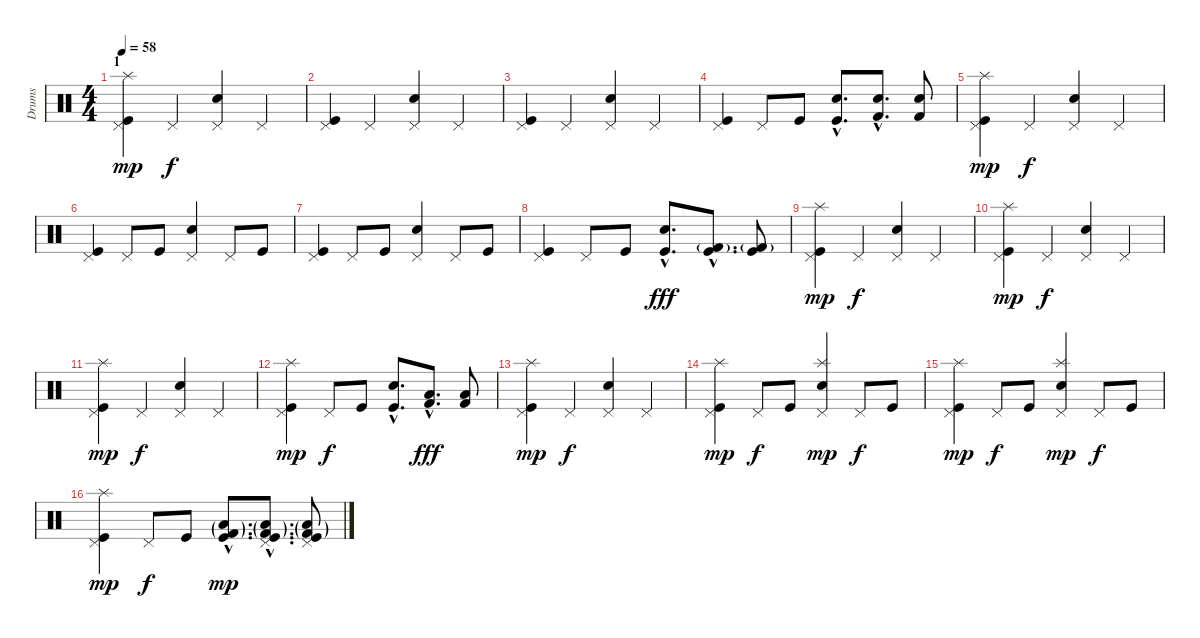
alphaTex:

\track ("Drums" "Drums") {instrument percussion}
\staff {score}
\articulation defaults
\ts (4 4)
\section ("" "1")
\tempo 58
\clef neutral
\ks c
("Kick (hit)" "Pedal Hi-Hat (hit)" "Splash (hit)").4{dy mp} "Pedal Hi-Hat (hit)".4{dy f} ("Electric Snare (hit)" "Pedal Hi-Hat (hit)").4 "Pedal Hi-Hat (hit)".4 |
("Kick (hit)" "Pedal Hi-Hat (hit)").4 "Pedal Hi-Hat (hit)".4 ("Electric Snare (hit)" "Pedal Hi-Hat (hit)").4 "Pedal Hi-Hat (hit)".4 |
("Kick (hit)" "Pedal Hi-Hat (hit)").4 "Pedal Hi-Hat (hit)".4 ("Electric Snare (hit)" "Pedal Hi-Hat (hit)").4 "Pedal Hi-Hat (hit)".4 |
("Kick (hit)" "Pedal Hi-Hat (hit)").4 "Pedal Hi-Hat (hit)".8 "Kick (hit)".8 ("Kick (hit)"{hac} "Electric Snare (hit)"{hac}).8{d} ("Kick (hit) 2"{hac} "Electric Snare (hit)"{hac}).8{d} ("Kick (hit) 2" "Electric Snare (hit)").8 |
("Kick (hit)" "Pedal Hi-Hat (hit)" "Splash (hit)").4{dy mp} "Pedal Hi-Hat (hit)".4{dy f} ("Electric Snare (hit)" "Pedal Hi-Hat (hit)").4 "Pedal Hi-Hat (hit)".4 |
("Kick (hit)" "Pedal Hi-Hat (hit)").4 "Pedal Hi-Hat (hit)".8 "Kick (hit)".8 ("Electric Snare (hit)" "Pedal Hi-Hat (hit)").4 "Pedal Hi-Hat (hit)".8 "Kick (hit)".8 |
("Kick (hit)" "Pedal Hi-Hat (hit)").4 "Pedal Hi-Hat (hit)".8 "Kick (hit)".8 ("Electric Snare (hit)" "Pedal Hi-Hat (hit)").4 "Pedal Hi-Hat (hit)".8 "Kick (hit)".8 |
("Kick (hit)" "Pedal Hi-Hat (hit)").4 "Pedal Hi-Hat (hit)".8 "Kick (hit)".8 ("Kick (hit)"{hac} "Electric Snare (hit)"{hac}).8{d dy fff} ("Kick (hit) 2"{g hac} "Kick (hit)"{hac}).8{d} ("Kick (hit) 2"{g} "Kick (hit)").8 |
("Kick (hit)" "Pedal Hi-Hat (hit)" "Splash (hit)").4{dy mp} "Pedal Hi-Hat (hit)".4{dy f} ("Electric Snare (hit)" "Pedal Hi-Hat (hit)").4 "Pedal Hi-Hat (hit)".4 |
("Kick (hit)" "Pedal Hi-Hat (hit)" "Splash (hit)").4{dy mp} "Pedal Hi-Hat (hit)".4{dy f} ("Electric Snare (hit)" "Pedal Hi-Hat (hit)").4 "Pedal Hi-Hat (hit)".4 |
("Kick (hit)" "Pedal Hi-Hat (hit)" "Splash (hit)").4{dy mp} "Pedal Hi-Hat (hit)".4{dy f} ("Electric Snare (hit)" "Pedal Hi-Hat (hit)").4 "Pedal Hi-Hat (hit)".4 |
("Kick (hit)" "Pedal Hi-Hat (hit)" "Splash (hit)").4{dy mp} "Pedal Hi-Hat (hit)".8{dy f} "Kick (hit)".8 ("Kick (hit)"{hac} "Electric Snare (hit)"{hac}).8{d} ("Low Floor Tom (hit)"{hac} "Kick (hit) 2"{hac}).8{d dy fff} ("Low Floor Tom (hit)" "Kick (hit) 2").8 |
("Kick (hit)" "Pedal Hi-Hat (hit)" "Splash (hit)").4{dy mp} "Pedal Hi-Hat (hit)".4{dy f} ("Electric Snare (hit)" "Pedal Hi-Hat (hit)").4 "Pedal Hi-Hat (hit)".4 |
("Kick (hit)" "Pedal Hi-Hat (hit)" "Splash (hit)").4{dy mp} "Pedal Hi-Hat (hit)".8{dy f} "Kick (hit)".8 ("Electric Snare (hit)" "Pedal Hi-Hat (hit)" "Splash (hit)").4{dy mp} "Pedal Hi-Hat (hit)".8{dy f} "Kick (hit)".8 |
("Kick (hit)" "Pedal Hi-Hat (hit)" "Splash (hit)").4{dy mp} "Pedal Hi-Hat (hit)".8{dy f} "Kick (hit)".8 ("Electric Snare (hit)" "Pedal Hi-Hat (hit)" "Splash (hit)").4{dy mp} "Pedal Hi-Hat (hit)".8{dy f} "Kick (hit)".8 |
("Kick (hit)" "Pedal Hi-Hat (hit)" "Splash (hit)").4{dy mp} "Pedal Hi-Hat (hit)".8{dy f} "Kick (hit)".8 ("Low Floor Tom (hit)"{g hac} "Kick (hit)"{hac} "Kick (hit) 2"{g hac}).8{d dy mp} ("Low Floor Tom (hit)"{g hac} "Kick (hit)"{hac} "Pedal Hi-Hat (hit)"{hac} "Kick (hit) 2"{g hac}).8{d} ("Low Floor Tom (hit)"{g} "Kick (hit)" "Pedal Hi-Hat (hit)" "Kick (hit) 2"{g}).8
